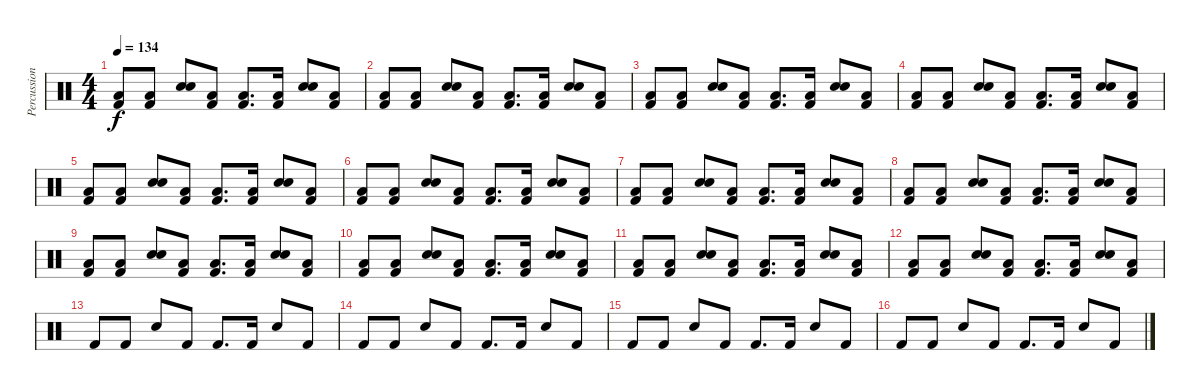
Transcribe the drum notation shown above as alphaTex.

\track ("Percussion" "Percussion") {instrument percussion}
\staff {score}
\articulation defaults
\ts (4 4)
\tempo 134
\clef neutral
\ks c
("Low Tom (hit)" "Kick (hit) 2").8{dy f} ("Low Tom (hit)" "Kick (hit) 2").8 ("Electric Snare (hit)" "Snare (hit) 2").8 ("Low Tom (hit)" "Kick (hit) 2").8 ("Low Tom (hit)" "Kick (hit) 2").8{d} ("Low Tom (hit)" "Kick (hit) 2").16 ("Electric Snare (hit)" "Snare (hit) 2").8 ("Low Tom (hit)" "Kick (hit) 2").8 |
("Low Tom (hit)" "Kick (hit) 2").8 ("Low Tom (hit)" "Kick (hit) 2").8 ("Electric Snare (hit)" "Snare (hit) 2").8 ("Low Tom (hit)" "Kick (hit) 2").8 ("Low Tom (hit)" "Kick (hit) 2").8{d} ("Low Tom (hit)" "Kick (hit) 2").16 ("Electric Snare (hit)" "Snare (hit) 2").8 ("Low Tom (hit)" "Kick (hit) 2").8 |
("Low Tom (hit)" "Kick (hit) 2").8 ("Low Tom (hit)" "Kick (hit) 2").8 ("Electric Snare (hit)" "Snare (hit) 2").8 ("Low Tom (hit)" "Kick (hit) 2").8 ("Low Tom (hit)" "Kick (hit) 2").8{d} ("Low Tom (hit)" "Kick (hit) 2").16 ("Electric Snare (hit)" "Snare (hit) 2").8 ("Low Tom (hit)" "Kick (hit) 2").8 |
("Low Tom (hit)" "Kick (hit) 2").8 ("Low Tom (hit)" "Kick (hit) 2").8 ("Electric Snare (hit)" "Snare (hit) 2").8 ("Low Tom (hit)" "Kick (hit) 2").8 ("Low Tom (hit)" "Kick (hit) 2").8{d} ("Low Tom (hit)" "Kick (hit) 2").16 ("Electric Snare (hit)" "Snare (hit) 2").8 ("Low Tom (hit)" "Kick (hit) 2").8 |
("Low Tom (hit)" "Kick (hit) 2").8 ("Low Tom (hit)" "Kick (hit) 2").8 ("Electric Snare (hit)" "Snare (hit) 2").8 ("Low Tom (hit)" "Kick (hit) 2").8 ("Low Tom (hit)" "Kick (hit) 2").8{d} ("Low Tom (hit)" "Kick (hit) 2").16 ("Electric Snare (hit)" "Snare (hit) 2").8 ("Low Tom (hit)" "Kick (hit) 2").8 |
("Low Tom (hit)" "Kick (hit) 2").8 ("Low Tom (hit)" "Kick (hit) 2").8 ("Electric Snare (hit)" "Snare (hit) 2").8 ("Low Tom (hit)" "Kick (hit) 2").8 ("Low Tom (hit)" "Kick (hit) 2").8{d} ("Low Tom (hit)" "Kick (hit) 2").16 ("Electric Snare (hit)" "Snare (hit) 2").8 ("Low Tom (hit)" "Kick (hit) 2").8 |
("Low Tom (hit)" "Kick (hit) 2").8 ("Low Tom (hit)" "Kick (hit) 2").8 ("Electric Snare (hit)" "Snare (hit) 2").8 ("Low Tom (hit)" "Kick (hit) 2").8 ("Low Tom (hit)" "Kick (hit) 2").8{d} ("Low Tom (hit)" "Kick (hit) 2").16 ("Electric Snare (hit)" "Snare (hit) 2").8 ("Low Tom (hit)" "Kick (hit) 2").8 |
("Low Tom (hit)" "Kick (hit) 2").8 ("Low Tom (hit)" "Kick (hit) 2").8 ("Electric Snare (hit)" "Snare (hit) 2").8 ("Low Tom (hit)" "Kick (hit) 2").8 ("Low Tom (hit)" "Kick (hit) 2").8{d} ("Low Tom (hit)" "Kick (hit) 2").16 ("Electric Snare (hit)" "Snare (hit) 2").8 ("Low Tom (hit)" "Kick (hit) 2").8 |
("Low Tom (hit)" "Kick (hit) 2").8 ("Low Tom (hit)" "Kick (hit) 2").8 ("Electric Snare (hit)" "Snare (hit) 2").8 ("Low Tom (hit)" "Kick (hit) 2").8 ("Low Tom (hit)" "Kick (hit) 2").8{d} ("Low Tom (hit)" "Kick (hit) 2").16 ("Electric Snare (hit)" "Snare (hit) 2").8 ("Low Tom (hit)" "Kick (hit) 2").8 |
("Low Tom (hit)" "Kick (hit) 2").8 ("Low Tom (hit)" "Kick (hit) 2").8 ("Electric Snare (hit)" "Snare (hit) 2").8 ("Low Tom (hit)" "Kick (hit) 2").8 ("Low Tom (hit)" "Kick (hit) 2").8{d} ("Low Tom (hit)" "Kick (hit) 2").16 ("Electric Snare (hit)" "Snare (hit) 2").8 ("Low Tom (hit)" "Kick (hit) 2").8 |
("Low Tom (hit)" "Kick (hit) 2").8 ("Low Tom (hit)" "Kick (hit) 2").8 ("Electric Snare (hit)" "Snare (hit) 2").8 ("Low Tom (hit)" "Kick (hit) 2").8 ("Low Tom (hit)" "Kick (hit) 2").8{d} ("Low Tom (hit)" "Kick (hit) 2").16 ("Electric Snare (hit)" "Snare (hit) 2").8 ("Low Tom (hit)" "Kick (hit) 2").8 |
("Low Tom (hit)" "Kick (hit) 2").8 ("Low Tom (hit)" "Kick (hit) 2").8 ("Electric Snare (hit)" "Snare (hit) 2").8 ("Low Tom (hit)" "Kick (hit) 2").8 ("Low Tom (hit)" "Kick (hit) 2").8{d} ("Low Tom (hit)" "Kick (hit) 2").16 ("Electric Snare (hit)" "Snare (hit) 2").8 ("Low Tom (hit)" "Kick (hit) 2").8 |
"Kick (hit) 2".8 "Kick (hit) 2".8 "Snare (hit) 2".8 "Kick (hit) 2".8 "Kick (hit) 2".8{d} "Kick (hit) 2".16 "Snare (hit) 2".8 "Kick (hit) 2".8 |
"Kick (hit) 2".8 "Kick (hit) 2".8 "Snare (hit) 2".8 "Kick (hit) 2".8 "Kick (hit) 2".8{d} "Kick (hit) 2".16 "Snare (hit) 2".8 "Kick (hit) 2".8 |
"Kick (hit) 2".8 "Kick (hit) 2".8 "Snare (hit) 2".8 "Kick (hit) 2".8 "Kick (hit) 2".8{d} "Kick (hit) 2".16 "Snare (hit) 2".8 "Kick (hit) 2".8 |
"Kick (hit) 2".8 "Kick (hit) 2".8 "Snare (hit) 2".8 "Kick (hit) 2".8 "Kick (hit) 2".8{d} "Kick (hit) 2".16 "Snare (hit) 2".8 "Kick (hit) 2".8
